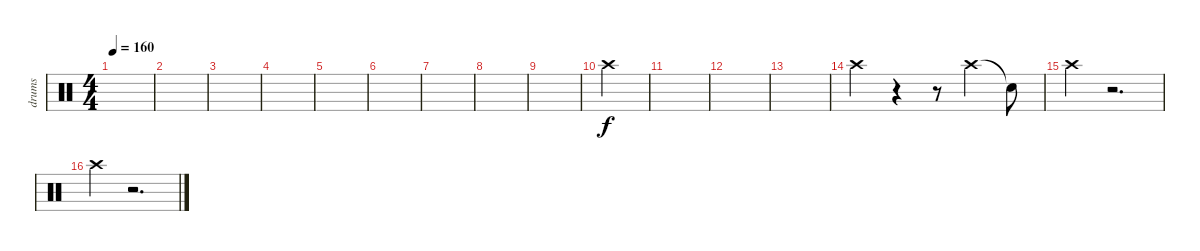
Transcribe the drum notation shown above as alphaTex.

\track ("drums" "drums") {instrument percussion}
\staff {score}
\articulation defaults
\ts (4 4)
\tempo 160
\clef neutral
\ks c
|
|
|
|
|
|
|
|
|
"Crash high (hit)".4 |
|
|
|
"Crash high (hit)".4 r.4 r.8 "Crash high (hit)".4 "Snare (hit)"{t}.8 |
"Crash high (hit)".4 r.2{d} |
"Crash high (hit)".4 r.2{d}
